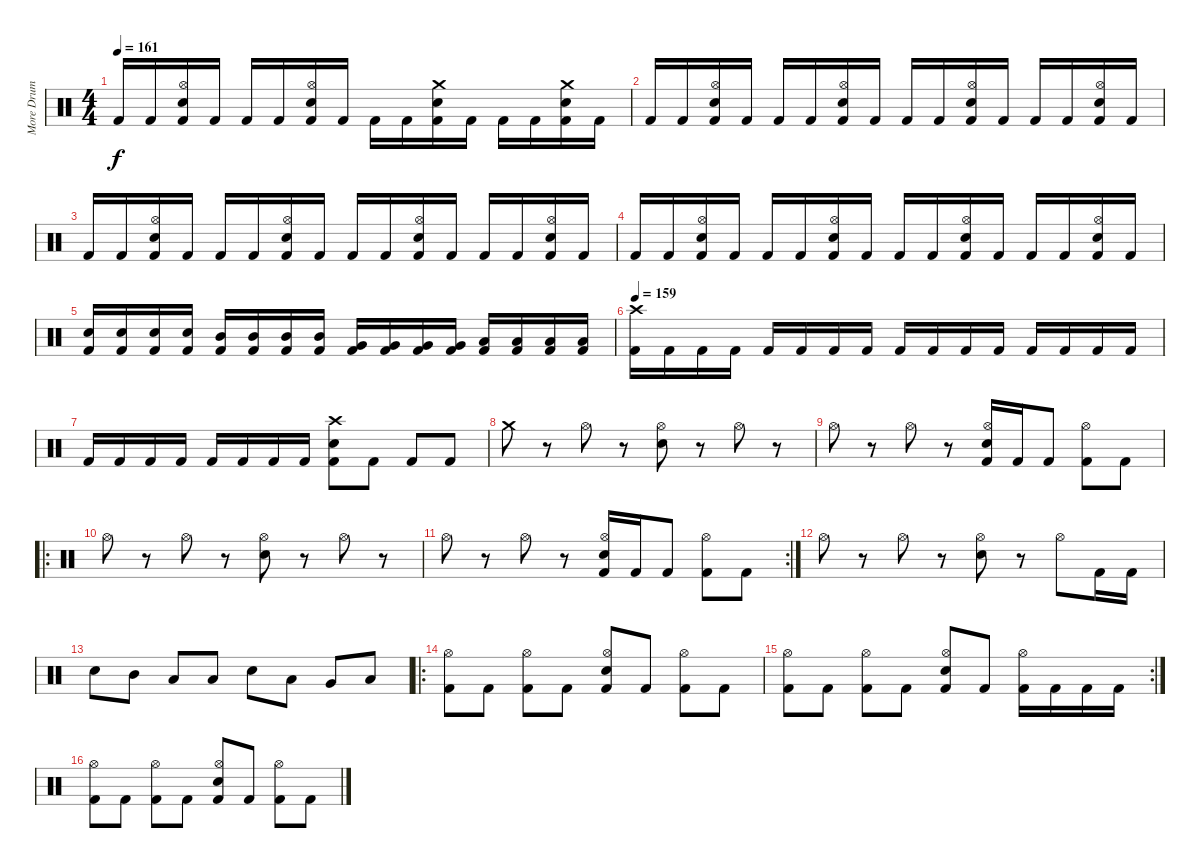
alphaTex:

\track ("More Drum Sound" "More Drum ") {instrument percussion}
\staff {score}
\articulation defaults
\ts (4 4)
\tempo 161
\clef neutral
\ks c "Kick (hit) 2".16{dy f} "Kick (hit) 2".16
("Hi-Hat (open)" "Snare (hit) 2" "Kick (hit) 2").16 "Kick (hit) 2".16 "Kick (hit) 2".16 "Kick (hit) 2".16 ("Hi-Hat (open)" "Snare (hit) 2" "Kick (hit) 2").16 "Kick (hit) 2".16 "Kick (hit) 2".16 "Kick (hit) 2".16 ("Crash medium (hit)" "Snare (hit) 2" "Kick (hit) 2").16 "Kick (hit) 2".16 "Kick (hit) 2".16 "Kick (hit) 2".16 ("Crash medium (hit)" "Snare (hit) 2" "Kick (hit) 2").16 "Kick (hit) 2".16 |
"Kick (hit) 2".16 "Kick (hit) 2".16 ("Hi-Hat (open)" "Snare (hit) 2" "Kick (hit) 2").16 "Kick (hit) 2".16 "Kick (hit) 2".16 "Kick (hit) 2".16 ("Hi-Hat (open)" "Snare (hit) 2" "Kick (hit) 2").16 "Kick (hit) 2".16 "Kick (hit) 2".16 "Kick (hit) 2".16 ("Hi-Hat (open)" "Snare (hit) 2" "Kick (hit) 2").16 "Kick (hit) 2".16 "Kick (hit) 2".16 "Kick (hit) 2".16 ("Hi-Hat (open)" "Snare (hit) 2" "Kick (hit) 2").16 "Kick (hit) 2".16 |
"Kick (hit) 2".16 "Kick (hit) 2".16 ("Hi-Hat (open)" "Snare (hit) 2" "Kick (hit) 2").16 "Kick (hit) 2".16 "Kick (hit) 2".16 "Kick (hit) 2".16 ("Hi-Hat (open)" "Snare (hit) 2" "Kick (hit) 2").16 "Kick (hit) 2".16 "Kick (hit) 2".16 "Kick (hit) 2".16 ("Hi-Hat (open)" "Snare (hit) 2" "Kick (hit) 2").16 "Kick (hit) 2".16 "Kick (hit) 2".16 "Kick (hit) 2".16 ("Hi-Hat (open)" "Snare (hit) 2" "Kick (hit) 2").16 "Kick (hit) 2".16 |
"Kick (hit) 2".16 "Kick (hit) 2".16 ("Hi-Hat (open)" "Snare (hit) 2" "Kick (hit) 2").16 "Kick (hit) 2".16 "Kick (hit) 2".16 "Kick (hit) 2".16 ("Hi-Hat (open)" "Snare (hit) 2" "Kick (hit) 2").16 "Kick (hit) 2".16 "Kick (hit) 2".16 "Kick (hit) 2".16 ("Hi-Hat (open)" "Snare (hit) 2" "Kick (hit) 2").16 "Kick (hit) 2".16 "Kick (hit) 2".16 "Kick (hit) 2".16 ("Hi-Hat (open)" "Snare (hit) 2" "Kick (hit) 2").16 "Kick (hit) 2".16 |
("Snare (hit) 2" "Kick (hit) 2").16 ("Snare (hit) 2" "Kick (hit) 2").16 ("Snare (hit) 2" "Kick (hit) 2").16 ("Snare (hit) 2" "Kick (hit) 2").16 ("Mid Tom (hit)" "Kick (hit) 2").16 ("Mid Tom (hit)" "Kick (hit) 2").16 ("Mid Tom (hit)" "Kick (hit) 2").16 ("Mid Tom (hit)" "Kick (hit) 2").16 ("Very Low Tom (hit)" "Kick (hit) 2").16 ("Very Low Tom (hit)" "Kick (hit) 2").16 ("Very Low Tom (hit)" "Kick (hit) 2").16 ("Very Low Tom (hit)" "Kick (hit) 2").16 ("Low Floor Tom (hit)" "Kick (hit) 2").16 ("Low Floor Tom (hit)" "Kick (hit) 2").16 ("Low Floor Tom (hit)" "Kick (hit) 2").16 ("Low Floor Tom (hit)" "Kick (hit) 2").16 |
\tempo 159
("Crash high (hit)" "Kick (hit) 2").16 "Kick (hit) 2".16 "Kick (hit) 2".16 "Kick (hit) 2".16 "Kick (hit) 2".16 "Kick (hit) 2".16 "Kick (hit) 2".16 "Kick (hit) 2".16 "Kick (hit) 2".16 "Kick (hit) 2".16 "Kick (hit) 2".16 "Kick (hit) 2".16 "Kick (hit) 2".16 "Kick (hit) 2".16 "Kick (hit) 2".16 "Kick (hit) 2".16 |
"Kick (hit) 2".16 "Kick (hit) 2".16 "Kick (hit) 2".16 "Kick (hit) 2".16 "Kick (hit) 2".16 "Kick (hit) 2".16 "Kick (hit) 2".16 "Kick (hit) 2".16 ("Crash high (hit)" "Snare (hit) 2" "Kick (hit) 2").8 "Kick (hit) 2".8 "Kick (hit) 2".8 "Kick (hit) 2".8 |
"Crash medium (hit)".8 r.8 "Hi-Hat (open)".8 r.8 ("Hi-Hat (open)" "Snare (hit) 2").8 r.8 "Hi-Hat (open)".8 r.8 |
"Hi-Hat (open)".8 r.8 "Hi-Hat (open)".8 r.8 ("Hi-Hat (open)" "Snare (hit) 2" "Kick (hit) 2").16 "Kick (hit) 2".16 "Kick (hit) 2".8 ("Hi-Hat (open)" "Kick (hit) 2").8 "Kick (hit) 2".8 |
\ro "Hi-Hat (open)".8
r.8 "Hi-Hat (open)".8 r.8 ("Hi-Hat (open)" "Snare (hit) 2").8 r.8 "Hi-Hat (open)".8 r.8 |
\rc 2 "Hi-Hat (open)".8
r.8 "Hi-Hat (open)".8 r.8 ("Hi-Hat (open)" "Snare (hit) 2" "Kick (hit) 2").16 "Kick (hit) 2".16 "Kick (hit) 2".8 ("Hi-Hat (open)" "Kick (hit) 2").8 "Kick (hit) 2".8 |
"Hi-Hat (open)".8 r.8 "Hi-Hat (open)".8 r.8 ("Hi-Hat (open)" "Snare (hit) 2").8 r.8 "Hi-Hat (open)".8 "Kick (hit) 2".16 "Kick (hit) 2".16 |
"Snare (hit) 2".8 "Mid Tom (hit)".8 "Low Tom (hit)".8 "Low Floor Tom (hit)".8 "Snare (hit) 2".8 "Low Tom (hit)".8 "Very Low Tom (hit)".8 "Low Floor Tom (hit)".8 |
\ro
("Hi-Hat (open)" "Kick (hit) 2").8 "Kick (hit) 2".8 ("Hi-Hat (open)" "Kick (hit) 2").8 "Kick (hit) 2".8 ("Hi-Hat (open)" "Snare (hit) 2" "Kick (hit) 2").8 "Kick (hit) 2".8 ("Hi-Hat (open)" "Kick (hit) 2").8 "Kick (hit) 2".8 |
\rc 2
("Hi-Hat (open)" "Kick (hit) 2").8 "Kick (hit) 2".8 ("Hi-Hat (open)" "Kick (hit) 2").8 "Kick (hit) 2".8 ("Hi-Hat (open)" "Snare (hit) 2" "Kick (hit) 2").8 "Kick (hit) 2".8 ("Hi-Hat (open)" "Kick (hit) 2").16 "Kick (hit) 2".16 "Kick (hit) 2".16 "Kick (hit) 2".16 |
("Hi-Hat (open)" "Kick (hit) 2").8 "Kick (hit) 2".8 ("Hi-Hat (open)" "Kick (hit) 2").8 "Kick (hit) 2".8 ("Hi-Hat (open)" "Snare (hit) 2" "Kick (hit) 2").8 "Kick (hit) 2".8 ("Hi-Hat (open)" "Kick (hit) 2").8 "Kick (hit) 2".8
